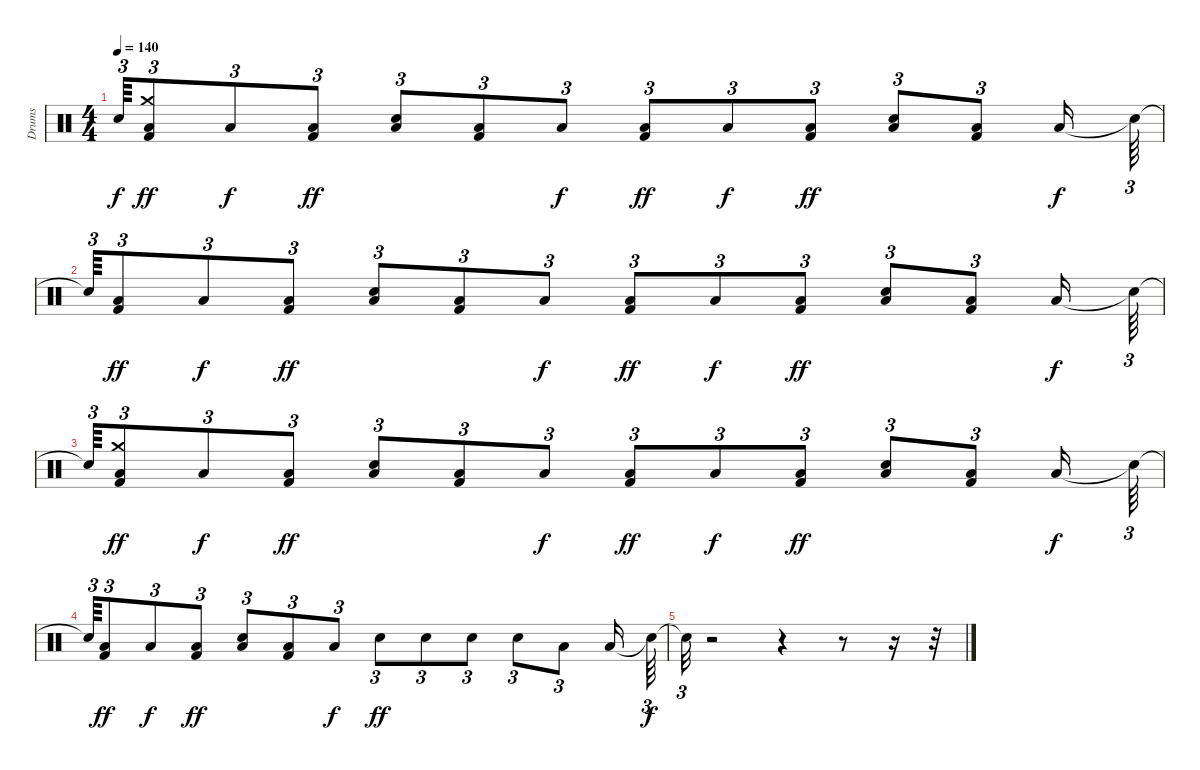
\track ("Drums" "Drums") {instrument percussion}
\staff {score}
\articulation defaults
\ts (4 4)
\tempo 140
\clef neutral
\ks c "Snare (hit)"{t}.64{tu (3 2) dy f}
("Kick (hit) 2" "Crash medium (hit)" "Low Floor Tom (hit)").8{tu (3 2) dy ff} "Low Floor Tom (hit)".8{tu (3 2) dy f} ("Kick (hit) 2" "Low Floor Tom (hit)").8{tu (3 2) dy ff} ("Snare (hit) 2" "Low Floor Tom (hit)").8{tu (3 2)} ("Kick (hit) 2" "Low Floor Tom (hit)").8{tu (3 2)} "Low Floor Tom (hit)".8{tu (3 2) dy f} ("Kick (hit) 2" "Low Floor Tom (hit)").8{tu (3 2) dy ff} "Low Floor Tom (hit)".8{tu (3 2) dy f} ("Kick (hit) 2" "Low Floor Tom (hit)").8{tu (3 2) dy ff} ("Snare (hit) 2" "Low Floor Tom (hit)").8{tu (3 2) volume 3} ("Kick (hit) 2" "Low Floor Tom (hit)").8{tu (3 2)} "Low Floor Tom (hit)".16{dy f} "Snare (hit)"{t}.64{tu (3 2)} |
"Snare (hit)"{t}.64{tu (3 2)} ("Kick (hit) 2" "Low Floor Tom (hit)").8{tu (3 2) dy ff} "Low Floor Tom (hit)".8{tu (3 2) dy f} ("Kick (hit) 2" "Low Floor Tom (hit)").8{tu (3 2) dy ff} ("Snare (hit) 2" "Low Floor Tom (hit)").8{tu (3 2)} ("Kick (hit) 2" "Low Floor Tom (hit)").8{tu (3 2)} "Low Floor Tom (hit)".8{tu (3 2) dy f} ("Kick (hit) 2" "Low Floor Tom (hit)").8{tu (3 2) dy ff} "Low Floor Tom (hit)".8{tu (3 2) dy f} ("Kick (hit) 2" "Low Floor Tom (hit)").8{tu (3 2) dy ff volume 2} ("Snare (hit) 2" "Low Floor Tom (hit)").8{tu (3 2)} ("Kick (hit) 2" "Low Floor Tom (hit)").8{tu (3 2)} "Low Floor Tom (hit)".16{dy f} "Snare (hit)"{t}.64{tu (3 2)} |
"Snare (hit)"{t}.64{tu (3 2)} ("Kick (hit) 2" "Crash medium (hit)" "Low Floor Tom (hit)").8{tu (3 2) dy ff} "Low Floor Tom (hit)".8{tu (3 2) dy f} ("Kick (hit) 2" "Low Floor Tom (hit)").8{tu (3 2) dy ff} ("Snare (hit) 2" "Low Floor Tom (hit)").8{tu (3 2)} ("Kick (hit) 2" "Low Floor Tom (hit)").8{tu (3 2)} "Low Floor Tom (hit)".8{tu (3 2) dy f} ("Kick (hit) 2" "Low Floor Tom (hit)").8{tu (3 2) dy ff} "Low Floor Tom (hit)".8{tu (3 2) dy f} ("Kick (hit) 2" "Low Floor Tom (hit)").8{tu (3 2) dy ff volume 1} ("Snare (hit) 2" "Low Floor Tom (hit)").8{tu (3 2)} ("Kick (hit) 2" "Low Floor Tom (hit)").8{tu (3 2)} "Low Floor Tom (hit)".16{dy f} "Snare (hit)"{t}.64{tu (3 2)} |
"Snare (hit)"{t}.64{tu (3 2)} ("Kick (hit) 2" "Low Floor Tom (hit)").8{tu (3 2) dy ff} "Low Floor Tom (hit)".8{tu (3 2) dy f} ("Kick (hit) 2" "Low Floor Tom (hit)").8{tu (3 2) dy ff} ("Snare (hit) 2" "Low Floor Tom (hit)").8{tu (3 2)} ("Kick (hit) 2" "Low Floor Tom (hit)").8{tu (3 2)} "Low Floor Tom (hit)".8{tu (3 2) dy f} "Snare (hit) 2".8{tu (3 2) dy ff volume 0} "Snare (hit) 2".8{tu (3 2)} "Snare (hit) 2".8{tu (3 2)} "Snare (hit) 2".8{tu (3 2)} "Low Tom (hit)".8{tu (3 2)} "Low Floor Tom (hit)".16 "Snare (hit)"{t}.64{tu (3 2) dy f} |
"Snare (hit)"{t}.32{tu (3 2)} r.2 r.4 r.8 r.16 r.32
